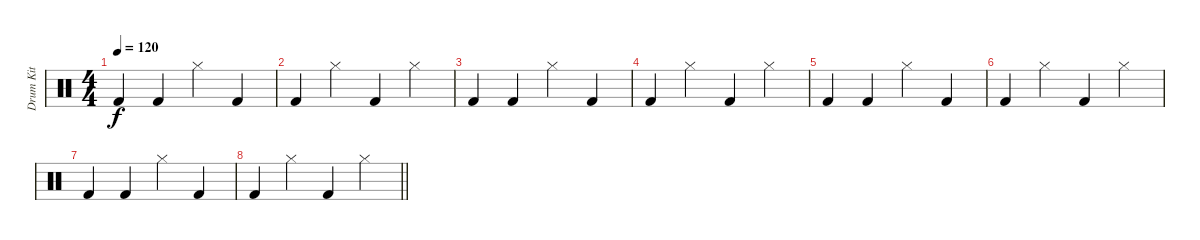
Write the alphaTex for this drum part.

\track ("Drum Kit" "Drum Kit") {instrument percussion}
\staff {score}
\articulation defaults
\ts (4 4)
\tempo 120
\clef neutral
\ks c "Kick (hit) 2".4{dy f} "Kick (hit) 2".4 "Hi-Hat (closed)".4 "Kick (hit) 2".4
|
"Kick (hit) 2".4 "Hi-Hat (closed)".4 "Kick (hit) 2".4 "Hi-Hat (closed)".4 |
"Kick (hit) 2".4 "Kick (hit) 2".4 "Hi-Hat (closed)".4 "Kick (hit) 2".4 |
"Kick (hit) 2".4 "Hi-Hat (closed)".4 "Kick (hit) 2".4 "Hi-Hat (closed)".4 |
"Kick (hit) 2".4 "Kick (hit) 2".4 "Hi-Hat (closed)".4 "Kick (hit) 2".4 |
"Kick (hit) 2".4 "Hi-Hat (closed)".4 "Kick (hit) 2".4 "Hi-Hat (closed)".4 |
"Kick (hit) 2".4 "Kick (hit) 2".4 "Hi-Hat (closed)".4 "Kick (hit) 2".4 |
\barLineRight lightlight "Kick (hit) 2".4 "Hi-Hat (closed)".4 "Kick (hit) 2".4 "Hi-Hat (closed)".4
